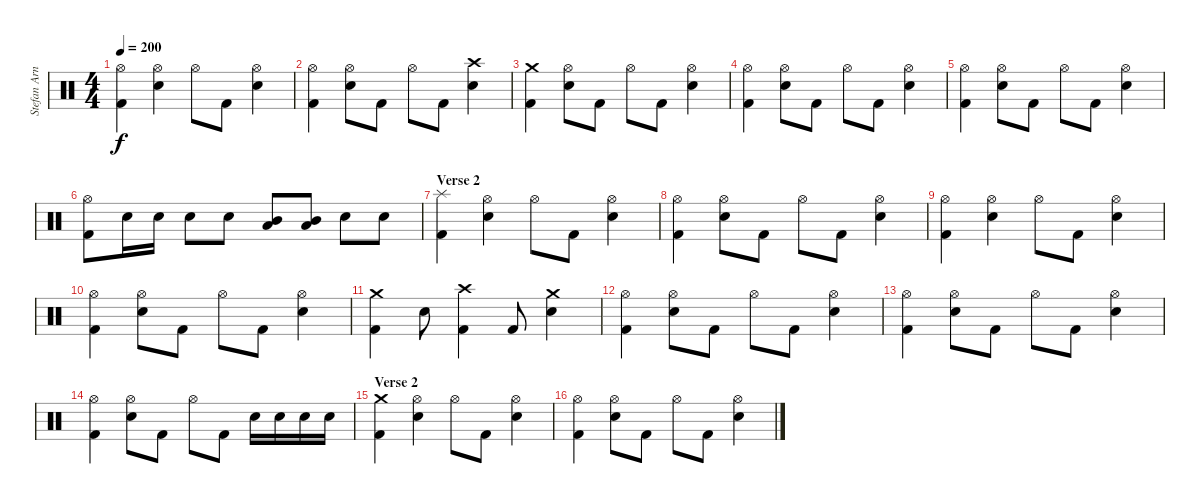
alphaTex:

\track ("Stefan Arnold" "Stefan Arn") {instrument percussion}
\staff {score}
\articulation defaults
\ts (4 4)
\tempo 200
\clef neutral
\ks c
("Hi-Hat (open)" "Kick (hit) 2").4{dy f} ("Hi-Hat (open)" "Electric Snare (hit)").4 "Hi-Hat (open)".8 "Kick (hit) 2".8 ("Hi-Hat (open)" "Electric Snare (hit)").4 |
("Hi-Hat (open)" "Kick (hit) 2").4 ("Hi-Hat (open)" "Electric Snare (hit)").8 "Kick (hit) 2".8 "Hi-Hat (open)".8 "Kick (hit) 2".8 ("Crash high (hit)" "Electric Snare (hit)").4 |
("Crash medium (hit)" "Kick (hit) 2").4 ("Hi-Hat (open)" "Electric Snare (hit)").8 "Kick (hit) 2".8 "Hi-Hat (open)".8 "Kick (hit) 2".8 ("Hi-Hat (open)" "Electric Snare (hit)").4 |
("Hi-Hat (open)" "Kick (hit) 2").4 ("Hi-Hat (open)" "Electric Snare (hit)").8 "Kick (hit) 2".8 "Hi-Hat (open)".8 "Kick (hit) 2".8 ("Hi-Hat (open)" "Electric Snare (hit)").4 |
("Hi-Hat (open)" "Kick (hit) 2").4 ("Hi-Hat (open)" "Electric Snare (hit)").8 "Kick (hit) 2".8 "Hi-Hat (open)".8 "Kick (hit) 2".8 ("Hi-Hat (open)" "Electric Snare (hit)").4 |
("Hi-Hat (open)" "Kick (hit) 2").8 "Electric Snare (hit)".16 "Electric Snare (hit)".16 "Electric Snare (hit)".8 "Electric Snare (hit)".8 ("Mid Tom (hit)" "Low Tom (hit)").8 ("Mid Tom (hit)" "Low Tom (hit)").8 "Electric Snare (hit)".8 "Electric Snare (hit)".8 |
\section ("" "Verse 2")
("Splash (hit)" "Kick (hit) 2").4 ("Hi-Hat (open)" "Electric Snare (hit)").4 "Hi-Hat (open)".8 "Kick (hit) 2".8 ("Hi-Hat (open)" "Electric Snare (hit)").4 |
("Hi-Hat (open)" "Kick (hit) 2").4 ("Hi-Hat (open)" "Electric Snare (hit)").8 "Kick (hit) 2".8 "Hi-Hat (open)".8 "Kick (hit) 2".8 ("Hi-Hat (open)" "Electric Snare (hit)").4 |
("Hi-Hat (open)" "Kick (hit) 2").4 ("Hi-Hat (open)" "Electric Snare (hit)").4 "Hi-Hat (open)".8 "Kick (hit) 2".8 ("Hi-Hat (open)" "Electric Snare (hit)").4 |
("Hi-Hat (open)" "Kick (hit) 2").4 ("Hi-Hat (open)" "Electric Snare (hit)").8 "Kick (hit) 2".8 "Hi-Hat (open)".8 "Kick (hit) 2".8 ("Hi-Hat (open)" "Electric Snare (hit)").4 |
("Crash medium (hit)" "Kick (hit) 2").4 "Electric Snare (hit)".8 ("Crash high (hit)" "Kick (hit) 2").4 "Kick (hit) 2".8 ("Crash medium (hit)" "Electric Snare (hit)").4 |
("Hi-Hat (open)" "Kick (hit) 2").4 ("Hi-Hat (open)" "Electric Snare (hit)").8 "Kick (hit) 2".8 "Hi-Hat (open)".8 "Kick (hit) 2".8 ("Hi-Hat (open)" "Electric Snare (hit)").4 |
("Hi-Hat (open)" "Kick (hit) 2").4 ("Hi-Hat (open)" "Electric Snare (hit)").8 "Kick (hit) 2".8 "Hi-Hat (open)".8 "Kick (hit) 2".8 ("Hi-Hat (open)" "Electric Snare (hit)").4 |
("Hi-Hat (open)" "Kick (hit) 2").4 ("Hi-Hat (open)" "Electric Snare (hit)").8 "Kick (hit) 2".8 "Hi-Hat (open)".8 "Kick (hit) 2".8 "Electric Snare (hit)".16 "Electric Snare (hit)".16 "Electric Snare (hit)".16 "Electric Snare (hit)".16 |
\section ("" "Verse 2")
("Crash medium (hit)" "Kick (hit) 2").4 ("Hi-Hat (open)" "Electric Snare (hit)").4 "Hi-Hat (open)".8 "Kick (hit) 2".8 ("Hi-Hat (open)" "Electric Snare (hit)").4 |
("Hi-Hat (open)" "Kick (hit) 2").4 ("Hi-Hat (open)" "Electric Snare (hit)").8 "Kick (hit) 2".8 "Hi-Hat (open)".8 "Kick (hit) 2".8 ("Hi-Hat (open)" "Electric Snare (hit)").4
